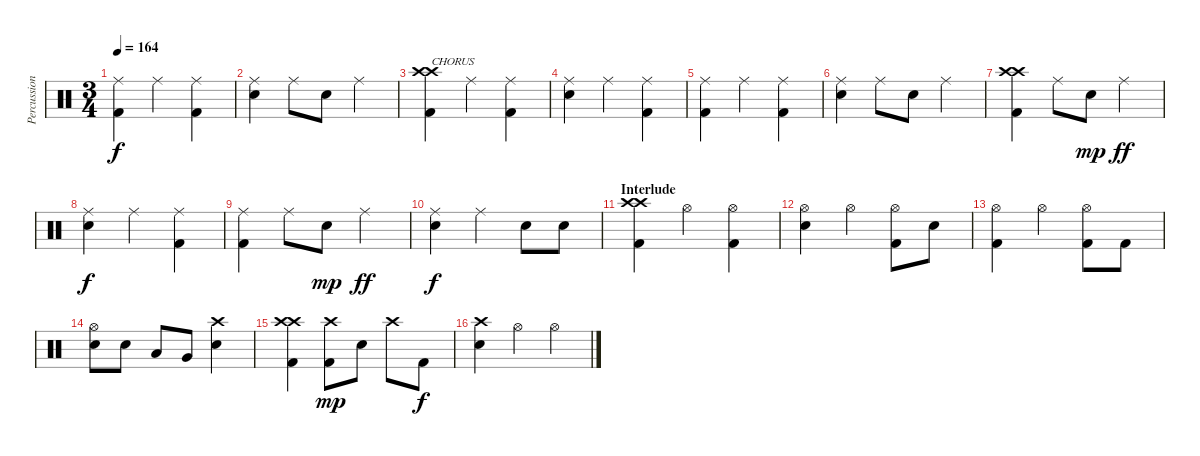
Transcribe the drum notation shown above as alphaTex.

\track ("Percussion" "Percussion") {instrument percussion}
\staff {score}
\articulation defaults
\ts (3 4)
\tempo 164
\clef neutral
\ks c
("Ride (middle)" "Kick (hit) 2").4{dy f} "Ride (middle)".4 ("Ride (middle)" "Kick (hit) 2").4 |
("Ride (middle)" "Snare (hit) 2").4 "Ride (middle)".8 "Snare (hit) 2".8 "Ride (middle)".4 |
("Crash high (hit)" "Crash high (hit)" "Kick (hit) 2").4{txt "CHORUS"} "Ride (middle)".4 ("Ride (middle)" "Kick (hit) 2").4 |
("Ride (middle)" "Snare (hit) 2").4 "Ride (middle)".4 ("Ride (middle)" "Kick (hit) 2").4 |
("Ride (middle)" "Kick (hit) 2").4 "Ride (middle)".4 ("Ride (middle)" "Kick (hit) 2").4 |
("Ride (middle)" "Snare (hit) 2").4 "Ride (middle)".8 "Snare (hit) 2".8 "Ride (middle)".4 |
("Crash high (hit)" "Crash high (hit)" "Kick (hit) 2").4 "Ride (middle)".8 "Snare (hit) 2".8{dy mp} "Ride (middle)".4{dy ff} |
("Ride (middle)" "Snare (hit) 2").4{dy f} "Ride (middle)".4 ("Ride (middle)" "Kick (hit) 2").4 |
("Ride (middle)" "Kick (hit) 2").4 "Ride (middle)".8 "Snare (hit) 2".8{dy mp} "Ride (middle)".4{dy ff} |
("Ride (middle)" "Snare (hit) 2").4{dy f} "Ride (middle)".4 "Snare (hit) 2".8 "Snare (hit) 2".8 |
\section ("" "Interlude")
("Crash high (hit)" "Crash high (hit)" "Kick (hit) 2").4 "Hi-Hat (open)".4 ("Hi-Hat (open)" "Kick (hit) 2").4 |
("Hi-Hat (open)" "Snare (hit) 2").4 "Hi-Hat (open)".4 ("Hi-Hat (open)" "Kick (hit) 2").8 "Snare (hit) 2".8 |
("Hi-Hat (open)" "Kick (hit) 2").4 "Hi-Hat (open)".4 ("Hi-Hat (open)" "Kick (hit) 2").8 "Kick (hit) 2".8 |
("Hi-Hat (open)" "Snare (hit) 2").8 "Snare (hit) 2".8 "Low Tom (hit)".8 "Very Low Tom (hit)".8 ("Crash high (hit)" "Snare (hit) 2").4 |
("Crash high (hit)" "Crash high (hit)" "Kick (hit) 2").4 ("Crash high (hit)" "Kick (hit) 2").8{dy mp} "Snare (hit) 2".8 "Crash high (hit)".8 "Kick (hit) 2".8{dy f} |
("Crash high (hit)" "Snare (hit) 2").4 "Hi-Hat (open)".4 "Hi-Hat (open)".4
